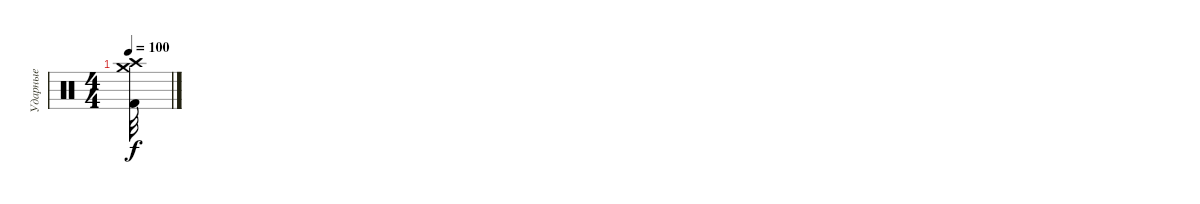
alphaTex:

\track ("Ударные" "Ударные") {instrument percussion}
\staff {score}
\articulation defaults
\ts (4 4)
\tempo 100
\clef neutral
\ks c
("Crash medium (hit)" "Crash high (hit)" "Kick (hit) 2").32{dy f}
